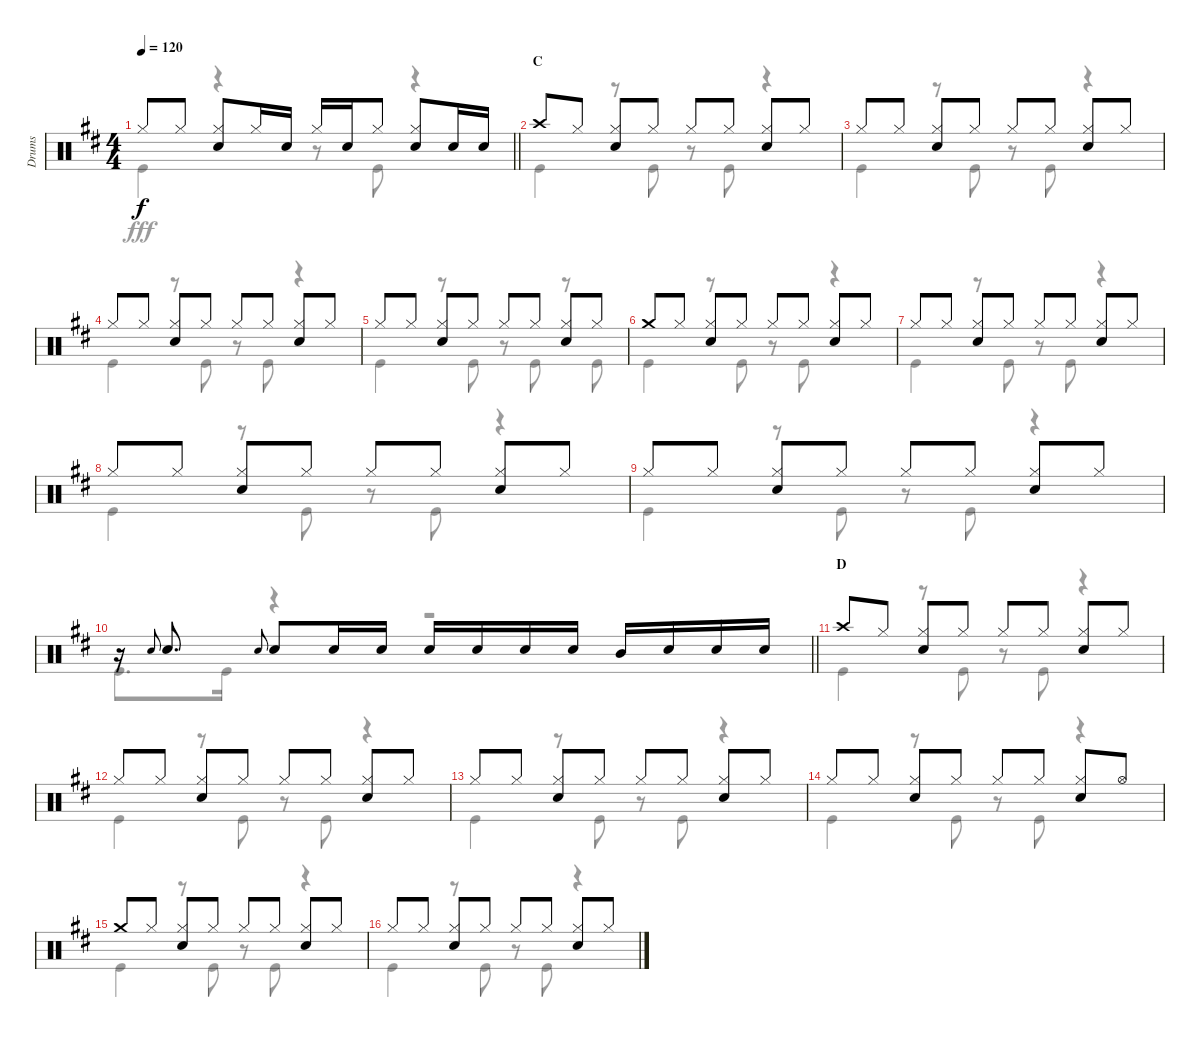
\track ("Drums" "Drums") {instrument percussion}
\staff {score}
\articulation defaults
\voice
\ts (4 4)
\tempo 120
\clef neutral
\barLineRight lightlight
\ks d "Hi-Hat (closed)".8{dy f} "Hi-Hat (closed)".8
("Hi-Hat (closed)" "Snare (hit) 2").8 "Hi-Hat (closed)".16 "Snare (hit) 2".16 "Hi-Hat (closed)".16 "Snare (hit) 2".16 "Hi-Hat (closed)".8 ("Hi-Hat (closed)" "Snare (hit) 2").8 "Snare (hit) 2".16 "Snare (hit) 2".16 |
\section ("" "C")
"Crash high (hit)".8 "Hi-Hat (closed)".8 ("Hi-Hat (closed)" "Snare (hit) 2").8 "Hi-Hat (closed)".8 "Hi-Hat (closed)".8 "Hi-Hat (closed)".8 ("Hi-Hat (closed)" "Snare (hit) 2").8 "Hi-Hat (closed)".8 |
"Hi-Hat (closed)".8 "Hi-Hat (closed)".8 ("Hi-Hat (closed)" "Snare (hit) 2").8 "Hi-Hat (closed)".8 "Hi-Hat (closed)".8 "Hi-Hat (closed)".8 ("Hi-Hat (closed)" "Snare (hit) 2").8 "Hi-Hat (closed)".8 |
"Hi-Hat (closed)".8 "Hi-Hat (closed)".8 ("Hi-Hat (closed)" "Snare (hit) 2").8 "Hi-Hat (closed)".8 "Hi-Hat (closed)".8 "Hi-Hat (closed)".8 ("Hi-Hat (closed)" "Snare (hit) 2").8 "Hi-Hat (closed)".8 |
"Hi-Hat (closed)".8 "Hi-Hat (closed)".8 ("Hi-Hat (closed)" "Snare (hit) 2").8 "Hi-Hat (closed)".8 "Hi-Hat (closed)".8 "Hi-Hat (closed)".8 ("Hi-Hat (closed)" "Snare (hit) 2").8 "Hi-Hat (closed)".8 |
"Crash medium (hit)".8 "Hi-Hat (closed)".8 ("Hi-Hat (closed)" "Snare (hit) 2").8 "Hi-Hat (closed)".8 "Hi-Hat (closed)".8 "Hi-Hat (closed)".8 ("Hi-Hat (closed)" "Snare (hit) 2").8 "Hi-Hat (closed)".8 |
"Hi-Hat (closed)".8 "Hi-Hat (closed)".8 ("Hi-Hat (closed)" "Snare (hit) 2").8 "Hi-Hat (closed)".8 "Hi-Hat (closed)".8 "Hi-Hat (closed)".8 ("Hi-Hat (closed)" "Snare (hit) 2").8 "Hi-Hat (closed)".8 |
"Hi-Hat (closed)".8 "Hi-Hat (closed)".8 ("Hi-Hat (closed)" "Snare (hit) 2").8 "Hi-Hat (closed)".8 "Hi-Hat (closed)".8 "Hi-Hat (closed)".8 ("Hi-Hat (closed)" "Snare (hit) 2").8 "Hi-Hat (closed)".8 |
"Hi-Hat (closed)".8 "Hi-Hat (closed)".8 ("Hi-Hat (closed)" "Snare (hit) 2").8 "Hi-Hat (closed)".8 "Hi-Hat (closed)".8 "Hi-Hat (closed)".8 ("Hi-Hat (closed)" "Snare (hit) 2").8 "Hi-Hat (closed)".8 |
\barLineRight lightlight
r.16 "Snare (hit) 2".8{gr onbeat} "Snare (hit) 2".8{d} "Snare (hit) 2".8{gr onbeat} "Snare (hit) 2".8 "Snare (hit) 2".16 "Snare (hit) 2".16 "Snare (hit) 2".16 "Snare (hit) 2".16 "Snare (hit) 2".16 "Snare (hit) 2".16 "Mid Tom (hit)".16 "Snare (hit) 2".16 "Snare (hit) 2".16 "Snare (hit) 2".16 |
\section ("" "D")
"Crash high (hit)".8 "Hi-Hat (closed)".8 ("Hi-Hat (closed)" "Snare (hit) 2").8 "Hi-Hat (closed)".8 "Hi-Hat (closed)".8 "Hi-Hat (closed)".8 ("Hi-Hat (closed)" "Snare (hit) 2").8 "Hi-Hat (closed)".8 |
"Hi-Hat (closed)".8 "Hi-Hat (closed)".8 ("Hi-Hat (closed)" "Snare (hit) 2").8 "Hi-Hat (closed)".8 "Hi-Hat (closed)".8 "Hi-Hat (closed)".8 ("Hi-Hat (closed)" "Snare (hit) 2").8 "Hi-Hat (closed)".8 |
"Hi-Hat (closed)".8 "Hi-Hat (closed)".8 ("Hi-Hat (closed)" "Snare (hit) 2").8 "Hi-Hat (closed)".8 "Hi-Hat (closed)".8 "Hi-Hat (closed)".8 ("Hi-Hat (closed)" "Snare (hit) 2").8 "Hi-Hat (closed)".8 |
"Hi-Hat (closed)".8 "Hi-Hat (closed)".8 ("Hi-Hat (closed)" "Snare (hit) 2").8 "Hi-Hat (closed)".8 "Hi-Hat (closed)".8 "Hi-Hat (closed)".8 ("Hi-Hat (closed)" "Snare (hit) 2").8 "Hi-Hat (open)".8 |
"Crash medium (hit)".8 "Hi-Hat (closed)".8 ("Hi-Hat (closed)" "Snare (hit) 2").8 "Hi-Hat (closed)".8 "Hi-Hat (closed)".8 "Hi-Hat (closed)".8 ("Hi-Hat (closed)" "Snare (hit) 2").8 "Hi-Hat (closed)".8 |
"Hi-Hat (closed)".8 "Hi-Hat (closed)".8 ("Hi-Hat (closed)" "Snare (hit) 2").8 "Hi-Hat (closed)".8 "Hi-Hat (closed)".8 "Hi-Hat (closed)".8 ("Hi-Hat (closed)" "Snare (hit) 2").8 "Hi-Hat (closed)".8
\voice
\clef neutral
\ottava regular
\simile none
\barLineRight lightlight
\ks d "Kick (hit)".4{dy fff}
r.4 r.8 "Kick (hit)".8 r.4 |
"Kick (hit)".4 r.8 "Kick (hit)".8 r.8 "Kick (hit)".8 r.4 |
"Kick (hit)".4 r.8 "Kick (hit)".8 r.8 "Kick (hit)".8 r.4 |
"Kick (hit)".4 r.8 "Kick (hit)".8 r.8 "Kick (hit)".8 r.4 |
"Kick (hit)".4 r.8 "Kick (hit)".8 r.8 "Kick (hit)".8 r.8 "Kick (hit)".8 |
"Kick (hit)".4 r.8 "Kick (hit)".8 r.8 "Kick (hit)".8 r.4 |
"Kick (hit)".4 r.8 "Kick (hit)".8 r.8 "Kick (hit)".8 r.4 |
"Kick (hit)".4 r.8 "Kick (hit)".8 r.8 "Kick (hit)".8 r.4 |
"Kick (hit)".4 r.8 "Kick (hit)".8 r.8 "Kick (hit)".8 r.4 |
\barLineRight lightlight "Kick (hit)".8{d} "Kick (hit)".16
r.4 r.2 |
"Kick (hit)".4 r.8 "Kick (hit)".8 r.8 "Kick (hit)".8 r.4 |
"Kick (hit)".4 r.8 "Kick (hit)".8 r.8 "Kick (hit)".8 r.4 |
"Kick (hit)".4 r.8 "Kick (hit)".8 r.8 "Kick (hit)".8 r.4 |
"Kick (hit)".4 r.8 "Kick (hit)".8 r.8 "Kick (hit)".8 r.4 |
"Kick (hit)".4 r.8 "Kick (hit)".8 r.8 "Kick (hit)".8 r.4 |
"Kick (hit)".4 r.8 "Kick (hit)".8 r.8 "Kick (hit)".8 r.4
